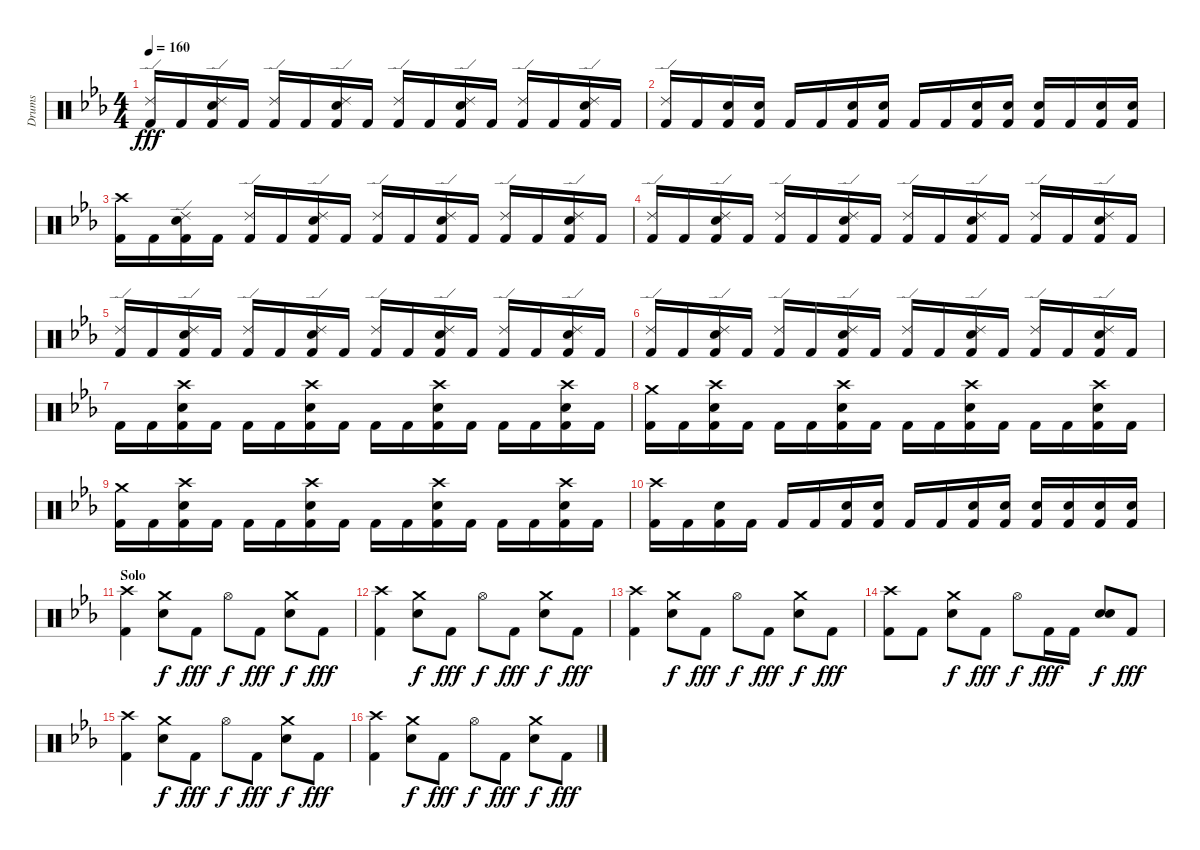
\track ("Drums" "Drums") {instrument percussion}
\staff {score}
\articulation defaults
\ts (4 4)
\tempo 160
\clef neutral
\ks eb
("Ride (edge) 2" "Kick (hit) 2").16{dy fff} "Kick (hit) 2".16 ("Ride (edge) 2" "Electric Snare (hit)" "Kick (hit) 2").16 "Kick (hit) 2".16 ("Ride (edge) 2" "Kick (hit) 2").16 "Kick (hit) 2".16 ("Ride (edge) 2" "Electric Snare (hit)" "Kick (hit) 2").16 "Kick (hit) 2".16 ("Ride (edge) 2" "Kick (hit) 2").16 "Kick (hit) 2".16 ("Ride (edge) 2" "Electric Snare (hit)" "Kick (hit) 2").16 "Kick (hit) 2".16 ("Ride (edge) 2" "Kick (hit) 2").16 "Kick (hit) 2".16 ("Ride (edge) 2" "Electric Snare (hit)" "Kick (hit) 2").16 "Kick (hit) 2".16 |
("Ride (edge) 2" "Kick (hit) 2").16 "Kick (hit) 2".16 ("Electric Snare (hit)" "Kick (hit) 2").16 ("Electric Snare (hit)" "Kick (hit) 2").16 "Kick (hit) 2".16 "Kick (hit) 2".16 ("Electric Snare (hit)" "Kick (hit) 2").16 ("Electric Snare (hit)" "Kick (hit) 2").16 "Kick (hit) 2".16 "Kick (hit) 2".16 ("Electric Snare (hit)" "Kick (hit) 2").16 ("Electric Snare (hit)" "Kick (hit) 2").16 ("Electric Snare (hit)" "Kick (hit) 2").16 "Kick (hit) 2".16 ("Electric Snare (hit)" "Kick (hit) 2").16 ("Electric Snare (hit)" "Kick (hit) 2").16 |
("Crash high (hit)" "Kick (hit) 2").16 "Kick (hit) 2".16 ("Ride (edge) 2" "Electric Snare (hit)" "Kick (hit) 2").16 "Kick (hit) 2".16 ("Ride (edge) 2" "Kick (hit) 2").16 "Kick (hit) 2".16 ("Ride (edge) 2" "Electric Snare (hit)" "Kick (hit) 2").16 "Kick (hit) 2".16 ("Ride (edge) 2" "Kick (hit) 2").16 "Kick (hit) 2".16 ("Ride (edge) 2" "Electric Snare (hit)" "Kick (hit) 2").16 "Kick (hit) 2".16 ("Ride (edge) 2" "Kick (hit) 2").16 "Kick (hit) 2".16 ("Ride (edge) 2" "Electric Snare (hit)" "Kick (hit) 2").16 "Kick (hit) 2".16 |
("Ride (edge) 2" "Kick (hit) 2").16 "Kick (hit) 2".16 ("Ride (edge) 2" "Electric Snare (hit)" "Kick (hit) 2").16 "Kick (hit) 2".16 ("Ride (edge) 2" "Kick (hit) 2").16 "Kick (hit) 2".16 ("Ride (edge) 2" "Electric Snare (hit)" "Kick (hit) 2").16 "Kick (hit) 2".16 ("Ride (edge) 2" "Kick (hit) 2").16 "Kick (hit) 2".16 ("Ride (edge) 2" "Electric Snare (hit)" "Kick (hit) 2").16 "Kick (hit) 2".16 ("Ride (edge) 2" "Kick (hit) 2").16 "Kick (hit) 2".16 ("Ride (edge) 2" "Electric Snare (hit)" "Kick (hit) 2").16 "Kick (hit) 2".16 |
("Ride (edge) 2" "Kick (hit) 2").16 "Kick (hit) 2".16 ("Ride (edge) 2" "Electric Snare (hit)" "Kick (hit) 2").16 "Kick (hit) 2".16 ("Ride (edge) 2" "Kick (hit) 2").16 "Kick (hit) 2".16 ("Ride (edge) 2" "Electric Snare (hit)" "Kick (hit) 2").16 "Kick (hit) 2".16 ("Ride (edge) 2" "Kick (hit) 2").16 "Kick (hit) 2".16 ("Ride (edge) 2" "Electric Snare (hit)" "Kick (hit) 2").16 "Kick (hit) 2".16 ("Ride (edge) 2" "Kick (hit) 2").16 "Kick (hit) 2".16 ("Ride (edge) 2" "Electric Snare (hit)" "Kick (hit) 2").16 "Kick (hit) 2".16 |
("Ride (edge) 2" "Kick (hit) 2").16 "Kick (hit) 2".16 ("Ride (edge) 2" "Electric Snare (hit)" "Kick (hit) 2").16 "Kick (hit) 2".16 ("Ride (edge) 2" "Kick (hit) 2").16 "Kick (hit) 2".16 ("Ride (edge) 2" "Electric Snare (hit)" "Kick (hit) 2").16 "Kick (hit) 2".16 ("Ride (edge) 2" "Kick (hit) 2").16 "Kick (hit) 2".16 ("Ride (edge) 2" "Electric Snare (hit)" "Kick (hit) 2").16 "Kick (hit) 2".16 ("Ride (edge) 2" "Kick (hit) 2").16 "Kick (hit) 2".16 ("Ride (edge) 2" "Electric Snare (hit)" "Kick (hit) 2").16 "Kick (hit) 2".16 |
"Kick (hit) 2".16 "Kick (hit) 2".16 ("Crash high (hit)" "Electric Snare (hit)" "Kick (hit) 2").16 "Kick (hit) 2".16 "Kick (hit) 2".16 "Kick (hit) 2".16 ("Crash high (hit)" "Electric Snare (hit)" "Kick (hit) 2").16 "Kick (hit) 2".16 "Kick (hit) 2".16 "Kick (hit) 2".16 ("Crash high (hit)" "Electric Snare (hit)" "Kick (hit) 2").16 "Kick (hit) 2".16 "Kick (hit) 2".16 "Kick (hit) 2".16 ("Crash high (hit)" "Electric Snare (hit)" "Kick (hit) 2").16 "Kick (hit) 2".16 |
("Crash medium (hit)" "Kick (hit) 2").16 "Kick (hit) 2".16 ("Crash high (hit)" "Electric Snare (hit)" "Kick (hit) 2").16 "Kick (hit) 2".16 "Kick (hit) 2".16 "Kick (hit) 2".16 ("Crash high (hit)" "Electric Snare (hit)" "Kick (hit) 2").16 "Kick (hit) 2".16 "Kick (hit) 2".16 "Kick (hit) 2".16 ("Crash high (hit)" "Electric Snare (hit)" "Kick (hit) 2").16 "Kick (hit) 2".16 "Kick (hit) 2".16 "Kick (hit) 2".16 ("Crash high (hit)" "Electric Snare (hit)" "Kick (hit) 2").16 "Kick (hit) 2".16 |
("Crash medium (hit)" "Kick (hit) 2").16 "Kick (hit) 2".16 ("Crash high (hit)" "Electric Snare (hit)" "Kick (hit) 2").16 "Kick (hit) 2".16 "Kick (hit) 2".16 "Kick (hit) 2".16 ("Crash high (hit)" "Electric Snare (hit)" "Kick (hit) 2").16 "Kick (hit) 2".16 "Kick (hit) 2".16 "Kick (hit) 2".16 ("Crash high (hit)" "Electric Snare (hit)" "Kick (hit) 2").16 "Kick (hit) 2".16 "Kick (hit) 2".16 "Kick (hit) 2".16 ("Crash high (hit)" "Electric Snare (hit)" "Kick (hit) 2").16 "Kick (hit) 2".16 |
("Crash high (hit)" "Kick (hit) 2").16 "Kick (hit) 2".16 ("Electric Snare (hit)" "Kick (hit) 2").16 "Kick (hit) 2".16 "Kick (hit) 2".16 "Kick (hit) 2".16 ("Electric Snare (hit)" "Kick (hit) 2").16 ("Electric Snare (hit)" "Kick (hit) 2").16 "Kick (hit) 2".16 "Kick (hit) 2".16 ("Electric Snare (hit)" "Kick (hit) 2").16 ("Electric Snare (hit)" "Kick (hit) 2").16 ("Electric Snare (hit)" "Kick (hit) 2").16 ("Electric Snare (hit)" "Kick (hit) 2").16 ("Electric Snare (hit)" "Kick (hit) 2").16 ("Electric Snare (hit)" "Kick (hit) 2").16 |
\section ("" "Solo")
("Crash high (hit)" "Kick (hit) 2").4 ("Crash medium (hit)" "Electric Snare (hit)").8{dy f} "Kick (hit) 2".8{dy fff} "Hi-Hat (open)".8{dy f} "Kick (hit) 2".8{dy fff} ("Crash medium (hit)" "Electric Snare (hit)").8{dy f} "Kick (hit) 2".8{dy fff} |
("Crash high (hit)" "Kick (hit) 2").4 ("Crash medium (hit)" "Electric Snare (hit)").8{dy f} "Kick (hit) 2".8{dy fff} "Hi-Hat (open)".8{dy f} "Kick (hit) 2".8{dy fff} ("Crash medium (hit)" "Electric Snare (hit)").8{dy f} "Kick (hit) 2".8{dy fff} |
("Crash high (hit)" "Kick (hit) 2").4 ("Crash medium (hit)" "Electric Snare (hit)").8{dy f} "Kick (hit) 2".8{dy fff} "Hi-Hat (open)".8{dy f} "Kick (hit) 2".8{dy fff} ("Crash medium (hit)" "Electric Snare (hit)").8{dy f} "Kick (hit) 2".8{dy fff} |
("Crash high (hit)" "Kick (hit) 2").8 "Kick (hit) 2".8 ("Crash medium (hit)" "Electric Snare (hit)").8{dy f} "Kick (hit) 2".8{dy fff} "Hi-Hat (open)".8{dy f} "Kick (hit) 2".16{dy fff} "Kick (hit) 2".16 ("Electric Snare (hit)" "Electric Snare (hit)").8{bd 60 dy f} "Kick (hit) 2".8{dy fff} |
("Crash high (hit)" "Kick (hit) 2").4 ("Crash medium (hit)" "Electric Snare (hit)").8{dy f} "Kick (hit) 2".8{dy fff} "Hi-Hat (open)".8{dy f} "Kick (hit) 2".8{dy fff} ("Crash medium (hit)" "Electric Snare (hit)").8{dy f} "Kick (hit) 2".8{dy fff} |
("Crash high (hit)" "Kick (hit) 2").4 ("Crash medium (hit)" "Electric Snare (hit)").8{dy f} "Kick (hit) 2".8{dy fff} "Hi-Hat (open)".8{dy f} "Kick (hit) 2".8{dy fff} ("Crash medium (hit)" "Electric Snare (hit)").8{dy f} "Kick (hit) 2".8{dy fff}
